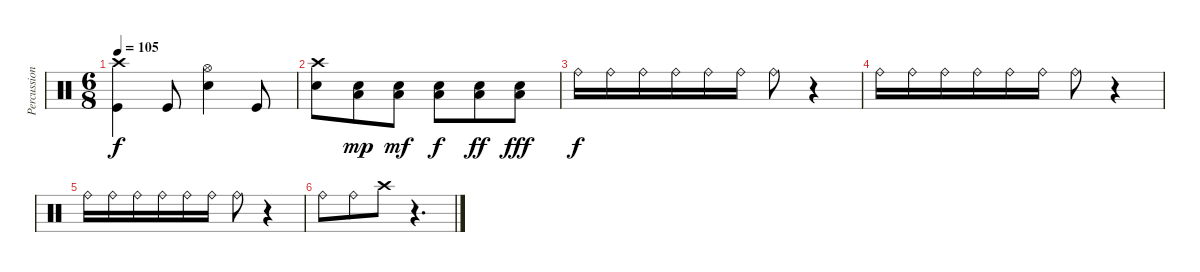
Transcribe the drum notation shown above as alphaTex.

\track ("Percussion" "Percussion") {instrument percussion}
\staff {score}
\articulation defaults
\ts (6 8)
\tempo 105
\clef neutral
\ks c
("Crash high (hit)" "Kick (hit)").4{dy f} "Kick (hit)".8 ("Hi-Hat (open)" "Electric Snare (hit)").4 "Kick (hit)".8 |
("Crash high (hit)" "Electric Snare (hit)").8 ("Low Floor Tom (hit)" "Electric Snare (hit)").8{dy mp} ("Low Floor Tom (hit)" "Electric Snare (hit)").8{dy mf} ("Low Floor Tom (hit)" "Electric Snare (hit)").8{dy f} ("Low Floor Tom (hit)" "Electric Snare (hit)").8{dy ff} ("Low Floor Tom (hit)" "Electric Snare (hit)").8{dy fff} |
"Ride (bell)".16{dy f} "Ride (bell)".16 "Ride (bell)".16 "Ride (bell)".16 "Ride (bell)".16 "Ride (bell)".16 "Ride (bell)".8 r.4 |
"Ride (bell)".16 "Ride (bell)".16 "Ride (bell)".16 "Ride (bell)".16 "Ride (bell)".16 "Ride (bell)".16 "Ride (bell)".8 r.4 |
"Ride (bell)".16 "Ride (bell)".16 "Ride (bell)".16 "Ride (bell)".16 "Ride (bell)".16 "Ride (bell)".16 "Ride (bell)".8 r.4 |
"Ride (bell)".8 "Ride (bell)".8 "Crash high (hit)".8 r.4{d}
